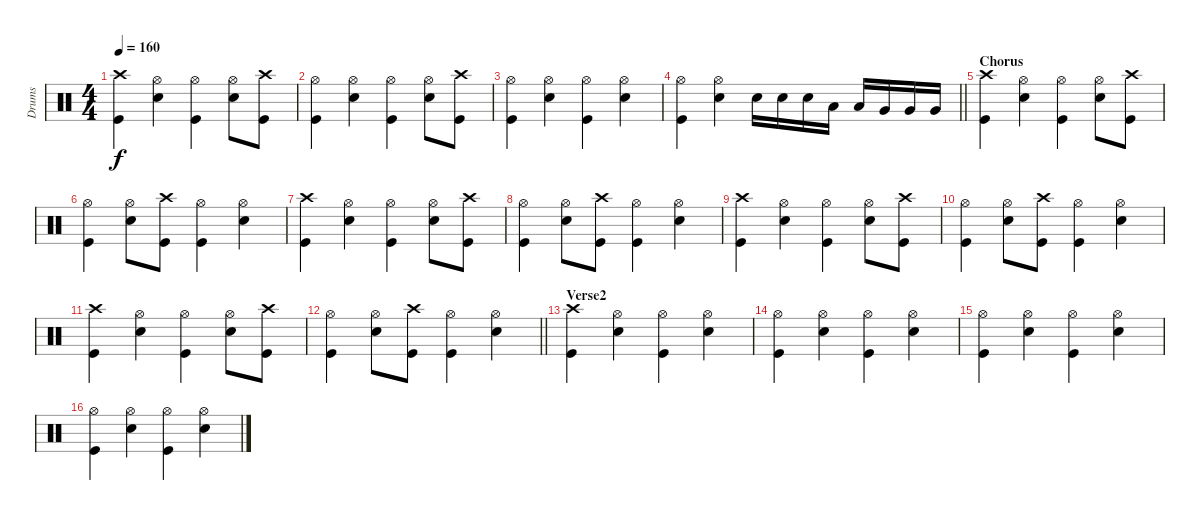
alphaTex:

\track ("Drums" "Drums") {instrument percussion}
\staff {score}
\articulation defaults
\ts (4 4)
\tempo 160
\clef neutral
\ks c
("Kick (hit)" "Crash high (hit)").4{dy f} ("Snare (hit) 2" "Hi-Hat (open)").4 ("Kick (hit)" "Hi-Hat (open)").4 ("Snare (hit) 2" "Hi-Hat (open)").8 ("Kick (hit)" "Crash high (hit)").8 |
("Kick (hit)" "Hi-Hat (open)").4 ("Snare (hit) 2" "Hi-Hat (open)").4 ("Kick (hit)" "Hi-Hat (open)").4 ("Snare (hit) 2" "Hi-Hat (open)").8 ("Kick (hit)" "Crash high (hit)").8 |
("Kick (hit)" "Hi-Hat (open)").4 ("Snare (hit) 2" "Hi-Hat (open)").4 ("Kick (hit)" "Hi-Hat (open)").4 ("Snare (hit) 2" "Hi-Hat (open)").4 |
\barLineRight lightlight
("Kick (hit)" "Hi-Hat (open)").4 ("Snare (hit) 2" "Hi-Hat (open)").4 "Snare (hit) 2".16 "Snare (hit) 2".16 "Snare (hit) 2".16 "Low Tom (hit)".16 "Low Tom (hit)".16 "Very Low Tom (hit)".16 "Very Low Tom (hit)".16 "Very Low Tom (hit)".16 |
\section ("" "Chorus")
("Kick (hit)" "Crash high (hit)").4 ("Snare (hit) 2" "Hi-Hat (open)").4 ("Kick (hit)" "Hi-Hat (open)").4 ("Snare (hit) 2" "Hi-Hat (open)").8 ("Kick (hit)" "Crash high (hit)").8 |
("Kick (hit)" "Hi-Hat (open)").4 ("Snare (hit) 2" "Hi-Hat (open)").8 ("Kick (hit)" "Crash high (hit)").8 ("Kick (hit)" "Hi-Hat (open)").4 ("Snare (hit) 2" "Hi-Hat (open)").4 |
("Kick (hit)" "Crash high (hit)").4 ("Snare (hit) 2" "Hi-Hat (open)").4 ("Kick (hit)" "Hi-Hat (open)").4 ("Snare (hit) 2" "Hi-Hat (open)").8 ("Kick (hit)" "Crash high (hit)").8 |
("Kick (hit)" "Hi-Hat (open)").4 ("Snare (hit) 2" "Hi-Hat (open)").8 ("Kick (hit)" "Crash high (hit)").8 ("Kick (hit)" "Hi-Hat (open)").4 ("Snare (hit) 2" "Hi-Hat (open)").4 |
("Kick (hit)" "Crash high (hit)").4 ("Snare (hit) 2" "Hi-Hat (open)").4 ("Kick (hit)" "Hi-Hat (open)").4 ("Snare (hit) 2" "Hi-Hat (open)").8 ("Kick (hit)" "Crash high (hit)").8 |
("Kick (hit)" "Hi-Hat (open)").4 ("Snare (hit) 2" "Hi-Hat (open)").8 ("Kick (hit)" "Crash high (hit)").8 ("Kick (hit)" "Hi-Hat (open)").4 ("Snare (hit) 2" "Hi-Hat (open)").4 |
("Kick (hit)" "Crash high (hit)").4 ("Snare (hit) 2" "Hi-Hat (open)").4 ("Kick (hit)" "Hi-Hat (open)").4 ("Snare (hit) 2" "Hi-Hat (open)").8 ("Kick (hit)" "Crash high (hit)").8 |
\barLineRight lightlight
("Kick (hit)" "Hi-Hat (open)").4 ("Snare (hit) 2" "Hi-Hat (open)").8 ("Kick (hit)" "Crash high (hit)").8 ("Kick (hit)" "Hi-Hat (open)").4 ("Snare (hit) 2" "Hi-Hat (open)").4 |
\section ("" "Verse2")
("Kick (hit)" "Crash high (hit)").4 ("Snare (hit) 2" "Hi-Hat (open)").4 ("Kick (hit)" "Hi-Hat (open)").4 ("Snare (hit) 2" "Hi-Hat (open)").4 |
("Kick (hit)" "Hi-Hat (open)").4 ("Snare (hit) 2" "Hi-Hat (open)").4 ("Kick (hit)" "Hi-Hat (open)").4 ("Snare (hit) 2" "Hi-Hat (open)").4 |
("Kick (hit)" "Hi-Hat (open)").4 ("Snare (hit) 2" "Hi-Hat (open)").4 ("Kick (hit)" "Hi-Hat (open)").4 ("Snare (hit) 2" "Hi-Hat (open)").4 |
("Kick (hit)" "Hi-Hat (open)").4 ("Snare (hit) 2" "Hi-Hat (open)").4 ("Kick (hit)" "Hi-Hat (open)").4 ("Snare (hit) 2" "Hi-Hat (open)").4
